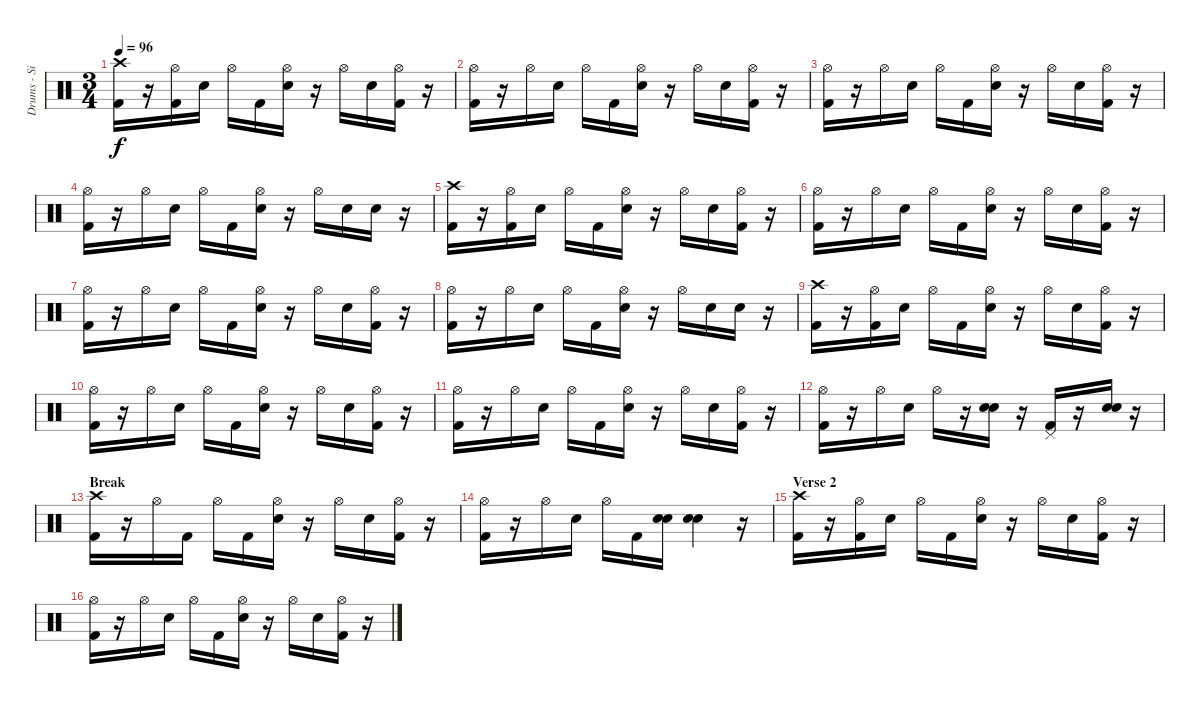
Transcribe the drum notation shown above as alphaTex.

\track ("Drums - Si" "Drums - Si") {instrument percussion}
\staff {score}
\articulation defaults
\ts (3 4)
\tempo 96
\clef neutral
\ks c
("Crash high (hit)" "Kick (hit) 2").16{dy f} r.16 ("Hi-Hat (open)" "Kick (hit) 2").16 "Snare (hit) 2".16 "Hi-Hat (open)".16 "Kick (hit) 2".16 ("Hi-Hat (open)" "Snare (hit) 2").16 r.16 "Hi-Hat (open)".16 "Snare (hit) 2".16 ("Hi-Hat (open)" "Kick (hit) 2").16 r.16 |
("Hi-Hat (open)" "Kick (hit) 2").16 r.16 "Hi-Hat (open)".16 "Snare (hit) 2".16 "Hi-Hat (open)".16 "Kick (hit) 2".16 ("Hi-Hat (open)" "Snare (hit) 2").16 r.16 "Hi-Hat (open)".16 "Snare (hit) 2".16 ("Hi-Hat (open)" "Kick (hit) 2").16 r.16 |
("Hi-Hat (open)" "Kick (hit) 2").16 r.16 "Hi-Hat (open)".16 "Snare (hit) 2".16 "Hi-Hat (open)".16 "Kick (hit) 2".16 ("Hi-Hat (open)" "Snare (hit) 2").16 r.16 "Hi-Hat (open)".16 "Snare (hit) 2".16 ("Hi-Hat (open)" "Kick (hit) 2").16 r.16 |
("Hi-Hat (open)" "Kick (hit) 2").16 r.16 "Hi-Hat (open)".16 "Snare (hit) 2".16 "Hi-Hat (open)".16 "Kick (hit) 2".16 ("Hi-Hat (open)" "Snare (hit) 2").16 r.16 "Hi-Hat (open)".16 "Snare (hit) 2".16 "Snare (hit) 2".16 r.16 |
("Crash high (hit)" "Kick (hit) 2").16 r.16 ("Hi-Hat (open)" "Kick (hit) 2").16 "Snare (hit) 2".16 "Hi-Hat (open)".16 "Kick (hit) 2".16 ("Hi-Hat (open)" "Snare (hit) 2").16 r.16 "Hi-Hat (open)".16 "Snare (hit) 2".16 ("Hi-Hat (open)" "Kick (hit) 2").16 r.16 |
("Hi-Hat (open)" "Kick (hit) 2").16 r.16 "Hi-Hat (open)".16 "Snare (hit) 2".16 "Hi-Hat (open)".16 "Kick (hit) 2".16 ("Hi-Hat (open)" "Snare (hit) 2").16 r.16 "Hi-Hat (open)".16 "Snare (hit) 2".16 ("Hi-Hat (open)" "Kick (hit) 2").16 r.16 |
("Hi-Hat (open)" "Kick (hit) 2").16 r.16 "Hi-Hat (open)".16 "Snare (hit) 2".16 "Hi-Hat (open)".16 "Kick (hit) 2".16 ("Hi-Hat (open)" "Snare (hit) 2").16 r.16 "Hi-Hat (open)".16 "Snare (hit) 2".16 ("Hi-Hat (open)" "Kick (hit) 2").16 r.16 |
("Hi-Hat (open)" "Kick (hit) 2").16 r.16 "Hi-Hat (open)".16 "Snare (hit) 2".16 "Hi-Hat (open)".16 "Kick (hit) 2".16 ("Hi-Hat (open)" "Snare (hit) 2").16 r.16 "Hi-Hat (open)".16 "Snare (hit) 2".16 "Snare (hit) 2".16 r.16 |
("Crash high (hit)" "Kick (hit) 2").16 r.16 ("Hi-Hat (open)" "Kick (hit) 2").16 "Snare (hit) 2".16 "Hi-Hat (open)".16 "Kick (hit) 2".16 ("Hi-Hat (open)" "Snare (hit) 2").16 r.16 "Hi-Hat (open)".16 "Snare (hit) 2".16 ("Hi-Hat (open)" "Kick (hit) 2").16 r.16 |
("Hi-Hat (open)" "Kick (hit) 2").16 r.16 "Hi-Hat (open)".16 "Snare (hit) 2".16 "Hi-Hat (open)".16 "Kick (hit) 2".16 ("Hi-Hat (open)" "Snare (hit) 2").16 r.16 "Hi-Hat (open)".16 "Snare (hit) 2".16 ("Hi-Hat (open)" "Kick (hit) 2").16 r.16 |
("Hi-Hat (open)" "Kick (hit) 2").16 r.16 "Hi-Hat (open)".16 "Snare (hit) 2".16 "Hi-Hat (open)".16 "Kick (hit) 2".16 ("Hi-Hat (open)" "Snare (hit) 2").16 r.16 "Hi-Hat (open)".16 "Snare (hit) 2".16 ("Hi-Hat (open)" "Kick (hit) 2").16 r.16 |
("Hi-Hat (open)" "Kick (hit) 2").16 r.16 "Hi-Hat (open)".16 "Snare (hit) 2".16 "Hi-Hat (open)".16 r.16 ("Snare (hit) 2" "Snare (hit) 2").16 r.16 ("Pedal Hi-Hat (hit)" "Kick (hit) 2").16 r.16 ("Snare (hit) 2" "Snare (hit) 2").16 r.16 |
\section ("" "Break")
("Crash high (hit)" "Kick (hit) 2").16 r.16 "Hi-Hat (open)".16 "Kick (hit) 2".16 "Hi-Hat (open)".16 "Kick (hit) 2".16 ("Hi-Hat (open)" "Snare (hit) 2").16 r.16 "Hi-Hat (open)".16 "Snare (hit) 2".16 ("Hi-Hat (open)" "Kick (hit) 2").16 r.16 |
("Hi-Hat (open)" "Kick (hit) 2").16 r.16 "Hi-Hat (open)".16 "Snare (hit) 2".16 "Hi-Hat (open)".16 "Kick (hit) 2".16 ("Snare (hit) 2" "Snare (hit) 2").16 ("Snare (hit) 2" "Snare (hit) 2").4 r.16 |
\section ("" "Verse 2")
("Crash high (hit)" "Kick (hit) 2").16 r.16 ("Hi-Hat (open)" "Kick (hit) 2").16 "Snare (hit) 2".16 "Hi-Hat (open)".16 "Kick (hit) 2".16 ("Hi-Hat (open)" "Snare (hit) 2").16 r.16 "Hi-Hat (open)".16 "Snare (hit) 2".16 ("Hi-Hat (open)" "Kick (hit) 2").16 r.16 |
("Hi-Hat (open)" "Kick (hit) 2").16 r.16 "Hi-Hat (open)".16 "Snare (hit) 2".16 "Hi-Hat (open)".16 "Kick (hit) 2".16 ("Hi-Hat (open)" "Snare (hit) 2").16 r.16 "Hi-Hat (open)".16 "Snare (hit) 2".16 ("Hi-Hat (open)" "Kick (hit) 2").16 r.16
